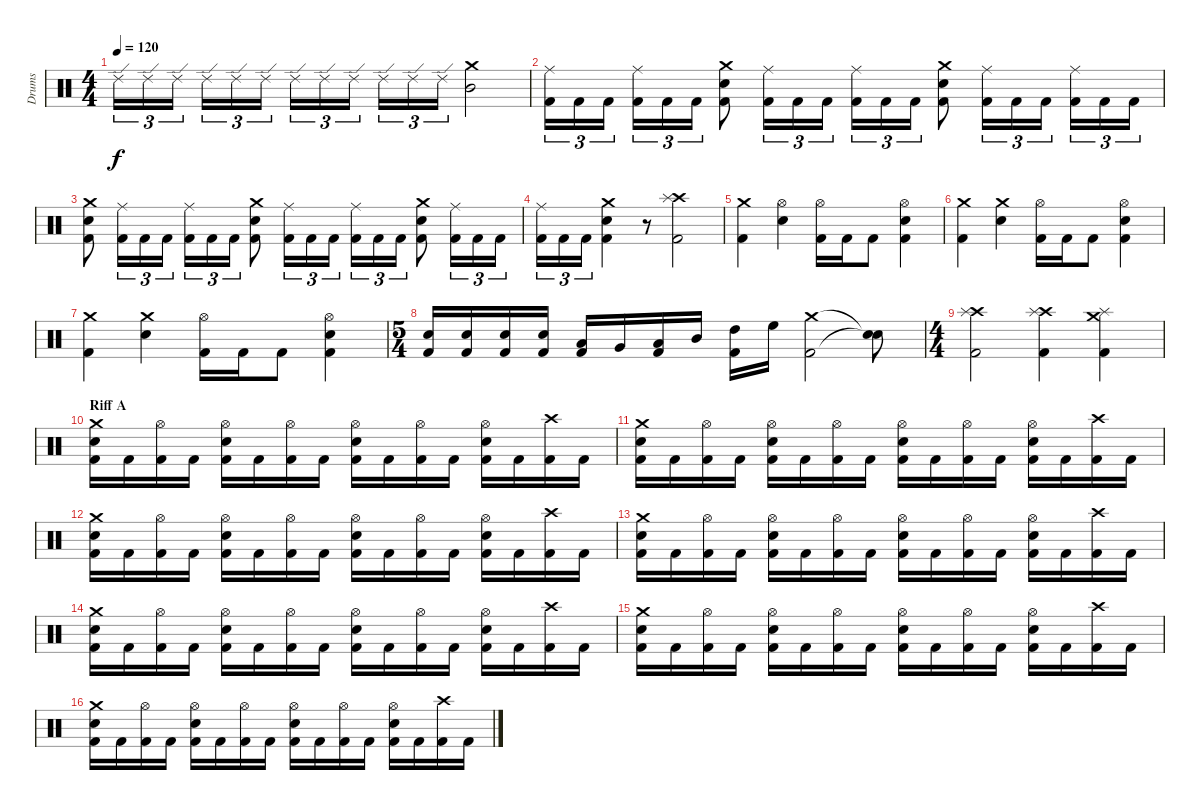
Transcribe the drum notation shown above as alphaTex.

\track ("Drums" "Drums") {instrument percussion}
\staff {score}
\articulation defaults
\ts (4 4)
\tempo 120
\clef neutral
\ks c "Ride (edge) 2".16{tu (3 2) dy f} "Ride (edge) 2".16{tu (3 2)} "Ride (edge) 2".16{tu (3 2)} "Ride (edge) 2".16{tu (3 2)} "Ride (edge) 2".16{tu (3 2)} "Ride (edge) 2".16{tu (3 2)} "Ride (edge) 2".16{tu (3 2)} "Ride (edge) 2".16{tu (3 2)} "Ride (edge) 2".16{tu (3 2)} "Ride (edge) 2".16{tu (3 2)} "Ride (edge) 2".16{tu (3 2)} "Ride (edge) 2".16{tu (3 2)}
("Crash medium (hit)" "Mid Tom (hit)").2 |
("Ride (middle)" "Kick (hit) 2").16{tu (3 2)} "Kick (hit) 2".16{tu (3 2)} "Kick (hit) 2".16{tu (3 2)} ("Ride (middle)" "Kick (hit) 2").16{tu (3 2)} "Kick (hit) 2".16{tu (3 2)} "Kick (hit) 2".16{tu (3 2)} ("Crash medium (hit)" "Electric Snare (hit)" "Kick (hit) 2").8 ("Ride (middle)" "Kick (hit) 2").16{tu (3 2)} "Kick (hit) 2".16{tu (3 2)} "Kick (hit) 2".16{tu (3 2)} ("Ride (middle)" "Kick (hit) 2").16{tu (3 2)} "Kick (hit) 2".16{tu (3 2)} "Kick (hit) 2".16{tu (3 2)} ("Crash medium (hit)" "Electric Snare (hit)" "Kick (hit) 2").8 ("Ride (middle)" "Kick (hit) 2").16{tu (3 2)} "Kick (hit) 2".16{tu (3 2)} "Kick (hit) 2".16{tu (3 2)} ("Ride (middle)" "Kick (hit) 2").16{tu (3 2)} "Kick (hit) 2".16{tu (3 2)} "Kick (hit) 2".16{tu (3 2)} |
("Crash medium (hit)" "Electric Snare (hit)" "Kick (hit) 2").8 ("Ride (middle)" "Kick (hit) 2").16{tu (3 2)} "Kick (hit) 2".16{tu (3 2)} "Kick (hit) 2".16{tu (3 2)} ("Ride (middle)" "Kick (hit) 2").16{tu (3 2)} "Kick (hit) 2".16{tu (3 2)} "Kick (hit) 2".16{tu (3 2)} ("Crash medium (hit)" "Electric Snare (hit)" "Kick (hit) 2").8 ("Ride (middle)" "Kick (hit) 2").16{tu (3 2)} "Kick (hit) 2".16{tu (3 2)} "Kick (hit) 2".16{tu (3 2)} ("Ride (middle)" "Kick (hit) 2").16{tu (3 2)} "Kick (hit) 2".16{tu (3 2)} "Kick (hit) 2".16{tu (3 2)} ("Crash medium (hit)" "Electric Snare (hit)" "Kick (hit) 2").8 ("Ride (middle)" "Kick (hit) 2").16{tu (3 2)} "Kick (hit) 2".16{tu (3 2)} "Kick (hit) 2".16{tu (3 2)} |
("Ride (middle)" "Kick (hit) 2").16{tu (3 2)} "Kick (hit) 2".16{tu (3 2)} "Kick (hit) 2".16{tu (3 2)} ("Crash medium (hit)" "Electric Snare (hit)" "Kick (hit) 2").4 r.8 ("Crash high (hit)" "Splash (hit)" "Kick (hit) 2").2 |
("Crash medium (hit)" "Kick (hit) 2").4 ("Hi-Hat (open)" "Electric Snare (hit)").4 ("Hi-Hat (open)" "Kick (hit) 2").16 "Kick (hit) 2".16 "Kick (hit) 2".8 ("Hi-Hat (open)" "Electric Snare (hit)" "Kick (hit) 2").4 |
("Crash medium (hit)" "Kick (hit) 2").4 ("Crash medium (hit)" "Electric Snare (hit)").4 ("Hi-Hat (open)" "Kick (hit) 2").16 "Kick (hit) 2".16 "Kick (hit) 2".8 ("Hi-Hat (open)" "Electric Snare (hit)" "Kick (hit) 2").4 |
("Crash medium (hit)" "Kick (hit) 2").4 ("Crash medium (hit)" "Electric Snare (hit)").4 ("Hi-Hat (open)" "Kick (hit) 2").16 "Kick (hit) 2".16 "Kick (hit) 2".8 ("Hi-Hat (open)" "Electric Snare (hit)" "Kick (hit) 2").4 |
\ts (5 4)
("Electric Snare (hit)" "Kick (hit) 2").16 ("Electric Snare (hit)" "Kick (hit) 2").16 ("Electric Snare (hit)" "Kick (hit) 2").16 ("Electric Snare (hit)" "Kick (hit) 2").16 ("Low Floor Tom (hit)" "Kick (hit) 2").16 "Very Low Tom (hit)".16 ("Low Tom (hit)" "Kick (hit) 2").16 "Mid Tom (hit)".16 ("High Tom (hit)" "Kick (hit) 2").16 "High Floor Tom (hit)".16 ("Crash medium (hit)" "Kick (hit) 2").2 ("Snare (hit)"{t} "Snare (hit)"{t}).8 |
\ts (4 4)
("Crash high (hit)" "Splash (hit)" "Kick (hit) 2").2 ("Crash high (hit)" "Splash (hit)" "Kick (hit) 2").4 ("Crash medium (hit)" "Splash (hit)" "Kick (hit) 2").4 |
\section ("" "Riff A")
("Crash medium (hit)" "Electric Snare (hit)" "Kick (hit) 2").16 "Kick (hit) 2".16 ("Hi-Hat (open)" "Kick (hit) 2").16 "Kick (hit) 2".16 ("Hi-Hat (open)" "Electric Snare (hit)" "Kick (hit) 2").16 "Kick (hit) 2".16 ("Hi-Hat (open)" "Kick (hit) 2").16 "Kick (hit) 2".16 ("Hi-Hat (open)" "Electric Snare (hit)" "Kick (hit) 2").16 "Kick (hit) 2".16 ("Hi-Hat (open)" "Kick (hit) 2").16 "Kick (hit) 2".16 ("Hi-Hat (open)" "Electric Snare (hit)" "Kick (hit) 2").16 "Kick (hit) 2".16 ("Crash high (hit)" "Kick (hit) 2").16 "Kick (hit) 2".16 |
("Crash medium (hit)" "Electric Snare (hit)" "Kick (hit) 2").16 "Kick (hit) 2".16 ("Hi-Hat (open)" "Kick (hit) 2").16 "Kick (hit) 2".16 ("Hi-Hat (open)" "Electric Snare (hit)" "Kick (hit) 2").16 "Kick (hit) 2".16 ("Hi-Hat (open)" "Kick (hit) 2").16 "Kick (hit) 2".16 ("Hi-Hat (open)" "Electric Snare (hit)" "Kick (hit) 2").16 "Kick (hit) 2".16 ("Hi-Hat (open)" "Kick (hit) 2").16 "Kick (hit) 2".16 ("Hi-Hat (open)" "Electric Snare (hit)" "Kick (hit) 2").16 "Kick (hit) 2".16 ("Crash high (hit)" "Kick (hit) 2").16 "Kick (hit) 2".16 |
("Crash medium (hit)" "Electric Snare (hit)" "Kick (hit) 2").16 "Kick (hit) 2".16 ("Hi-Hat (open)" "Kick (hit) 2").16 "Kick (hit) 2".16 ("Hi-Hat (open)" "Electric Snare (hit)" "Kick (hit) 2").16 "Kick (hit) 2".16 ("Hi-Hat (open)" "Kick (hit) 2").16 "Kick (hit) 2".16 ("Hi-Hat (open)" "Electric Snare (hit)" "Kick (hit) 2").16 "Kick (hit) 2".16 ("Hi-Hat (open)" "Kick (hit) 2").16 "Kick (hit) 2".16 ("Hi-Hat (open)" "Electric Snare (hit)" "Kick (hit) 2").16 "Kick (hit) 2".16 ("Crash high (hit)" "Kick (hit) 2").16 "Kick (hit) 2".16 |
("Crash medium (hit)" "Electric Snare (hit)" "Kick (hit) 2").16 "Kick (hit) 2".16 ("Hi-Hat (open)" "Kick (hit) 2").16 "Kick (hit) 2".16 ("Hi-Hat (open)" "Electric Snare (hit)" "Kick (hit) 2").16 "Kick (hit) 2".16 ("Hi-Hat (open)" "Kick (hit) 2").16 "Kick (hit) 2".16 ("Hi-Hat (open)" "Electric Snare (hit)" "Kick (hit) 2").16 "Kick (hit) 2".16 ("Hi-Hat (open)" "Kick (hit) 2").16 "Kick (hit) 2".16 ("Hi-Hat (open)" "Electric Snare (hit)" "Kick (hit) 2").16 "Kick (hit) 2".16 ("Crash high (hit)" "Kick (hit) 2").16 "Kick (hit) 2".16 |
("Crash medium (hit)" "Electric Snare (hit)" "Kick (hit) 2").16 "Kick (hit) 2".16 ("Hi-Hat (open)" "Kick (hit) 2").16 "Kick (hit) 2".16 ("Hi-Hat (open)" "Electric Snare (hit)" "Kick (hit) 2").16 "Kick (hit) 2".16 ("Hi-Hat (open)" "Kick (hit) 2").16 "Kick (hit) 2".16 ("Hi-Hat (open)" "Electric Snare (hit)" "Kick (hit) 2").16 "Kick (hit) 2".16 ("Hi-Hat (open)" "Kick (hit) 2").16 "Kick (hit) 2".16 ("Hi-Hat (open)" "Electric Snare (hit)" "Kick (hit) 2").16 "Kick (hit) 2".16 ("Crash high (hit)" "Kick (hit) 2").16 "Kick (hit) 2".16 |
("Crash medium (hit)" "Electric Snare (hit)" "Kick (hit) 2").16 "Kick (hit) 2".16 ("Hi-Hat (open)" "Kick (hit) 2").16 "Kick (hit) 2".16 ("Hi-Hat (open)" "Electric Snare (hit)" "Kick (hit) 2").16 "Kick (hit) 2".16 ("Hi-Hat (open)" "Kick (hit) 2").16 "Kick (hit) 2".16 ("Hi-Hat (open)" "Electric Snare (hit)" "Kick (hit) 2").16 "Kick (hit) 2".16 ("Hi-Hat (open)" "Kick (hit) 2").16 "Kick (hit) 2".16 ("Hi-Hat (open)" "Electric Snare (hit)" "Kick (hit) 2").16 "Kick (hit) 2".16 ("Crash high (hit)" "Kick (hit) 2").16 "Kick (hit) 2".16 |
("Crash medium (hit)" "Electric Snare (hit)" "Kick (hit) 2").16 "Kick (hit) 2".16 ("Hi-Hat (open)" "Kick (hit) 2").16 "Kick (hit) 2".16 ("Hi-Hat (open)" "Electric Snare (hit)" "Kick (hit) 2").16 "Kick (hit) 2".16 ("Hi-Hat (open)" "Kick (hit) 2").16 "Kick (hit) 2".16 ("Hi-Hat (open)" "Electric Snare (hit)" "Kick (hit) 2").16 "Kick (hit) 2".16 ("Hi-Hat (open)" "Kick (hit) 2").16 "Kick (hit) 2".16 ("Hi-Hat (open)" "Electric Snare (hit)" "Kick (hit) 2").16 "Kick (hit) 2".16 ("Crash high (hit)" "Kick (hit) 2").16 "Kick (hit) 2".16
